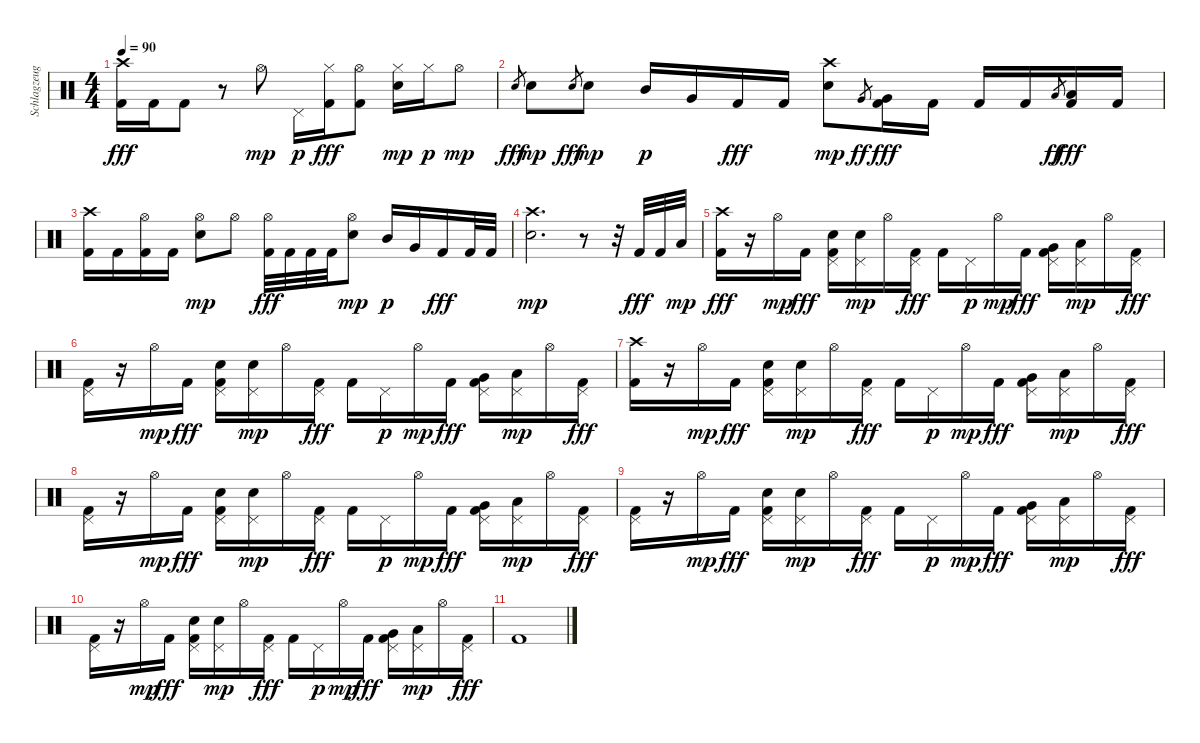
\track ("Schlagzeug" "Schlagzeug") {instrument percussion}
\staff {score}
\articulation defaults
\ts (4 4)
\tempo 90
\clef neutral
\ks c
("Crash high (hit)" "Kick (hit) 2").16{dy fff} "Kick (hit) 2".16 "Kick (hit) 2".8 r.8 "Hi-Hat (open)".8{dy mp} "Pedal Hi-Hat (hit)".16{dy p} ("Hi-Hat (closed)" "Kick (hit) 2").16{dy fff} ("Hi-Hat (open)" "Kick (hit) 2").8 ("Hi-Hat (closed)" "Electric Snare (hit)").16{dy mp} "Hi-Hat (closed)".16{dy p} "Hi-Hat (open)".8{dy mp} |
"Electric Snare (hit)".8{gr dy fff} "Electric Snare (hit)".8{dy mp} "Electric Snare (hit)".8{gr dy fff} "Electric Snare (hit)".8{dy mp} "Mid Tom (hit)".16{dy p} "Very Low Tom (hit)".16 "Kick (hit) 2".16{dy fff} "Kick (hit) 2".16 ("Crash high (hit)" "Electric Snare (hit)").8{dy mp} "Very Low Tom (hit)".8{gr dy ff} ("Very Low Tom (hit)" "Kick (hit) 2").16{dy fff} "Kick (hit) 2".16 "Kick (hit) 2".16 "Kick (hit) 2".16 "Low Floor Tom (hit)".8{gr dy ff} ("Low Floor Tom (hit)" "Kick (hit) 2").16{dy fff} "Kick (hit) 2".16 |
("Crash high (hit)" "Kick (hit) 2").16 "Kick (hit) 2".16 ("Hi-Hat (open)" "Kick (hit) 2").16 "Kick (hit) 2".16 ("Hi-Hat (open)" "Electric Snare (hit)").8{dy mp} "Hi-Hat (open)".8 ("Hi-Hat (open)" "Kick (hit) 2").32{dy fff} "Kick (hit) 2".32 "Kick (hit) 2".32 "Kick (hit) 2".32 ("Hi-Hat (open)" "Electric Snare (hit)").8{dy mp} "Mid Tom (hit)".16{dy p} "Very Low Tom (hit)".16 "Kick (hit) 2".16{dy fff} "Kick (hit) 2".32 "Kick (hit) 2".32 |
("Crash high (hit)" "Electric Snare (hit)").2{d dy mp} r.8 r.32 "Kick (hit) 2".32{dy fff} "Kick (hit) 2".32 "Low Floor Tom (hit)".32{dy mp} |
("Crash high (hit)" "Kick (hit) 2").16{dy fff} r.16 "Hi-Hat (open)".16{dy mp} "Kick (hit) 2".16{dy fff} ("Pedal Hi-Hat (hit)" "Electric Snare (hit)" "Kick (hit) 2").16 ("Pedal Hi-Hat (hit)" "Electric Snare (hit)").16{dy mp} "Hi-Hat (open)".16 ("Pedal Hi-Hat (hit)" "Kick (hit) 2").16{dy fff} "Kick (hit) 2".16 "Pedal Hi-Hat (hit)".16{dy p} "Hi-Hat (open)".16{dy mp} "Kick (hit) 2".16{dy fff} ("Pedal Hi-Hat (hit)" "Very Low Tom (hit)" "Kick (hit) 2").16 ("Pedal Hi-Hat (hit)" "Low Floor Tom (hit)").16{dy mp} "Hi-Hat (open)".16 ("Pedal Hi-Hat (hit)" "Kick (hit) 2").16{dy fff} |
("Pedal Hi-Hat (hit)" "Kick (hit) 2").16 r.16 "Hi-Hat (open)".16{dy mp} "Kick (hit) 2".16{dy fff} ("Pedal Hi-Hat (hit)" "Electric Snare (hit)" "Kick (hit) 2").16 ("Pedal Hi-Hat (hit)" "Electric Snare (hit)").16{dy mp} "Hi-Hat (open)".16 ("Pedal Hi-Hat (hit)" "Kick (hit) 2").16{dy fff} "Kick (hit) 2".16 "Pedal Hi-Hat (hit)".16{dy p} "Hi-Hat (open)".16{dy mp} "Kick (hit) 2".16{dy fff} ("Pedal Hi-Hat (hit)" "Very Low Tom (hit)" "Kick (hit) 2").16 ("Pedal Hi-Hat (hit)" "Low Floor Tom (hit)").16{dy mp} "Hi-Hat (open)".16 ("Pedal Hi-Hat (hit)" "Kick (hit) 2").16{dy fff} |
("Crash high (hit)" "Kick (hit) 2").16 r.16 "Hi-Hat (open)".16{dy mp} "Kick (hit) 2".16{dy fff} ("Pedal Hi-Hat (hit)" "Electric Snare (hit)" "Kick (hit) 2").16 ("Pedal Hi-Hat (hit)" "Electric Snare (hit)").16{dy mp} "Hi-Hat (open)".16 ("Pedal Hi-Hat (hit)" "Kick (hit) 2").16{dy fff} "Kick (hit) 2".16 "Pedal Hi-Hat (hit)".16{dy p} "Hi-Hat (open)".16{dy mp} "Kick (hit) 2".16{dy fff} ("Pedal Hi-Hat (hit)" "Very Low Tom (hit)" "Kick (hit) 2").16 ("Pedal Hi-Hat (hit)" "Low Floor Tom (hit)").16{dy mp} "Hi-Hat (open)".16 ("Pedal Hi-Hat (hit)" "Kick (hit) 2").16{dy fff} |
("Pedal Hi-Hat (hit)" "Kick (hit) 2").16 r.16 "Hi-Hat (open)".16{dy mp} "Kick (hit) 2".16{dy fff} ("Pedal Hi-Hat (hit)" "Electric Snare (hit)" "Kick (hit) 2").16 ("Pedal Hi-Hat (hit)" "Electric Snare (hit)").16{dy mp} "Hi-Hat (open)".16 ("Pedal Hi-Hat (hit)" "Kick (hit) 2").16{dy fff} "Kick (hit) 2".16 "Pedal Hi-Hat (hit)".16{dy p} "Hi-Hat (open)".16{dy mp} "Kick (hit) 2".16{dy fff} ("Pedal Hi-Hat (hit)" "Very Low Tom (hit)" "Kick (hit) 2").16 ("Pedal Hi-Hat (hit)" "Low Floor Tom (hit)").16{dy mp} "Hi-Hat (open)".16 ("Pedal Hi-Hat (hit)" "Kick (hit) 2").16{dy fff} |
("Pedal Hi-Hat (hit)" "Kick (hit) 2").16 r.16 "Hi-Hat (open)".16{dy mp} "Kick (hit) 2".16{dy fff} ("Pedal Hi-Hat (hit)" "Electric Snare (hit)" "Kick (hit) 2").16 ("Pedal Hi-Hat (hit)" "Electric Snare (hit)").16{dy mp} "Hi-Hat (open)".16 ("Pedal Hi-Hat (hit)" "Kick (hit) 2").16{dy fff} "Kick (hit) 2".16 "Pedal Hi-Hat (hit)".16{dy p} "Hi-Hat (open)".16{dy mp} "Kick (hit) 2".16{dy fff} ("Pedal Hi-Hat (hit)" "Very Low Tom (hit)" "Kick (hit) 2").16 ("Pedal Hi-Hat (hit)" "Low Floor Tom (hit)").16{dy mp} "Hi-Hat (open)".16 ("Pedal Hi-Hat (hit)" "Kick (hit) 2").16{dy fff} |
("Pedal Hi-Hat (hit)" "Kick (hit) 2").16 r.16 "Hi-Hat (open)".16{dy mp} "Kick (hit) 2".16{dy fff} ("Pedal Hi-Hat (hit)" "Electric Snare (hit)" "Kick (hit) 2").16 ("Pedal Hi-Hat (hit)" "Electric Snare (hit)").16{dy mp} "Hi-Hat (open)".16 ("Pedal Hi-Hat (hit)" "Kick (hit) 2").16{dy fff} "Kick (hit) 2".16 "Pedal Hi-Hat (hit)".16{dy p} "Hi-Hat (open)".16{dy mp} "Kick (hit) 2".16{dy fff} ("Pedal Hi-Hat (hit)" "Very Low Tom (hit)" "Kick (hit) 2").16 ("Pedal Hi-Hat (hit)" "Low Floor Tom (hit)").16{dy mp} "Hi-Hat (open)".16 ("Pedal Hi-Hat (hit)" "Kick (hit) 2").16{dy fff} |
"Kick (hit) 2".1
